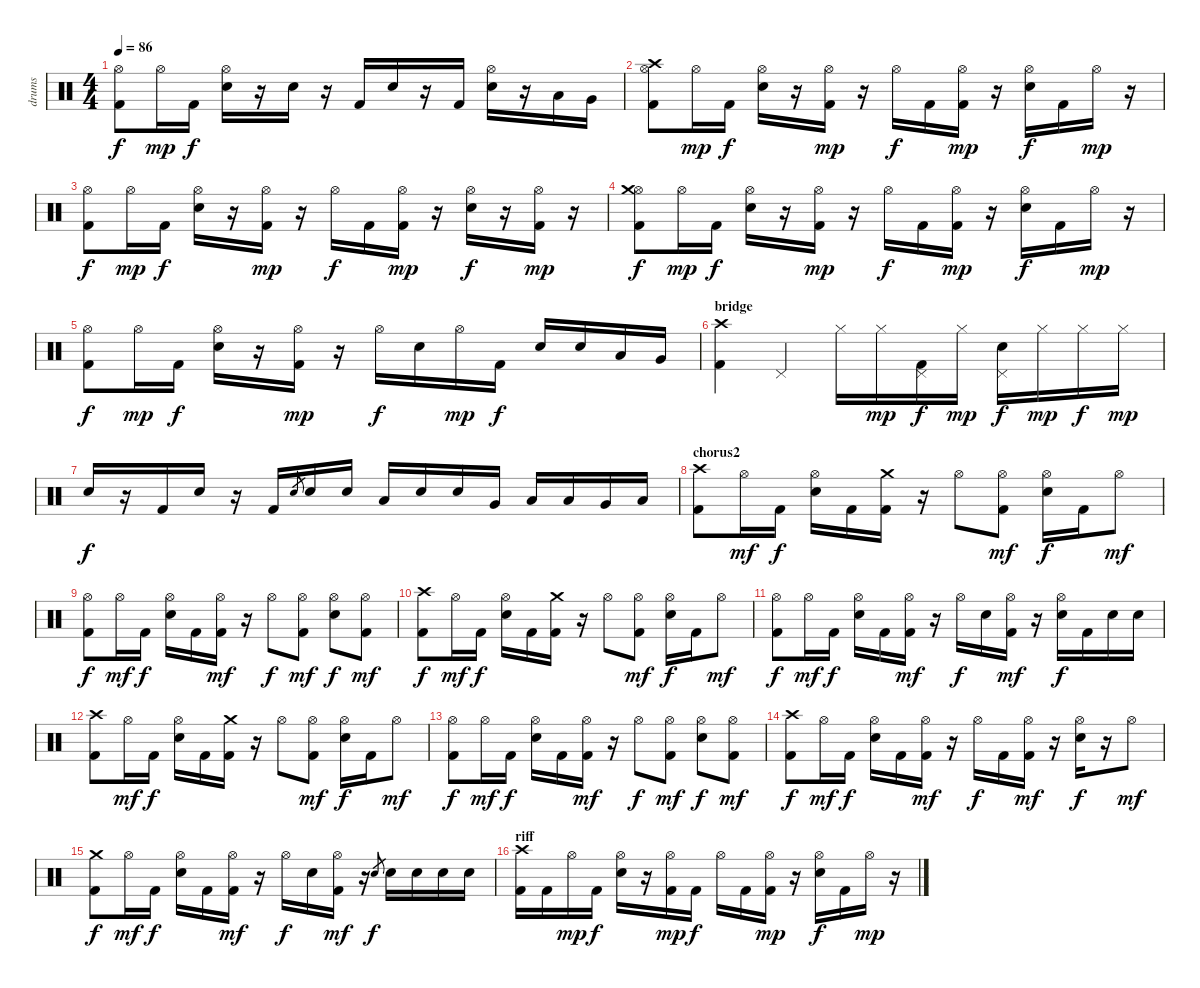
\track ("drums" "drums") {instrument percussion}
\staff {score}
\articulation defaults
\ts (4 4)
\tempo 86
\clef neutral
\ks c
("Kick (hit) 2" "Hi-Hat (open)").8{dy f} "Hi-Hat (open)".16{dy mp} "Kick (hit) 2".16{dy f} ("Electric Snare (hit)" "Hi-Hat (open)").16 r.16 "Electric Snare (hit)".16 r.16 "Kick (hit) 2".16 "Electric Snare (hit)".16 r.16 "Kick (hit) 2".16 ("Electric Snare (hit)" "Hi-Hat (open)").16 r.16 "Low Tom (hit)".16 "Very Low Tom (hit)".16 |
("Kick (hit) 2" "Hi-Hat (open)" "Crash high (hit)").8 "Hi-Hat (open)".16{dy mp} "Kick (hit) 2".16{dy f} ("Electric Snare (hit)" "Hi-Hat (open)").16 r.16 ("Kick (hit) 2" "Hi-Hat (open)").16{dy mp} r.16 "Hi-Hat (open)".16{dy f} "Kick (hit) 2".16 ("Kick (hit) 2" "Hi-Hat (open)").16{dy mp} r.16 ("Electric Snare (hit)" "Hi-Hat (open)").16{dy f} "Kick (hit) 2".16 "Hi-Hat (open)".16{dy mp} r.16 |
("Kick (hit) 2" "Hi-Hat (open)").8{dy f} "Hi-Hat (open)".16{dy mp} "Kick (hit) 2".16{dy f} ("Electric Snare (hit)" "Hi-Hat (open)").16 r.16 ("Kick (hit) 2" "Hi-Hat (open)").16{dy mp} r.16 "Hi-Hat (open)".16{dy f} "Kick (hit) 2".16 ("Kick (hit) 2" "Hi-Hat (open)").16{dy mp} r.16 ("Electric Snare (hit)" "Hi-Hat (open)").16{dy f} r.16 ("Kick (hit) 2" "Hi-Hat (open)").16{dy mp} r.16 |
("Kick (hit) 2" "Hi-Hat (open)" "Crash medium (hit)").8{dy f} "Hi-Hat (open)".16{dy mp} "Kick (hit) 2".16{dy f} ("Electric Snare (hit)" "Hi-Hat (open)").16 r.16 ("Kick (hit) 2" "Hi-Hat (open)").16{dy mp} r.16 "Hi-Hat (open)".16{dy f} "Kick (hit) 2".16 ("Kick (hit) 2" "Hi-Hat (open)").16{dy mp} r.16 ("Electric Snare (hit)" "Hi-Hat (open)").16{dy f} "Kick (hit) 2".16 "Hi-Hat (open)".16{dy mp} r.16 |
("Kick (hit) 2" "Hi-Hat (open)").8{dy f} "Hi-Hat (open)".16{dy mp} "Kick (hit) 2".16{dy f} ("Electric Snare (hit)" "Hi-Hat (open)").16 r.16 ("Kick (hit) 2" "Hi-Hat (open)").16{dy mp} r.16 "Hi-Hat (open)".16{dy f} "Electric Snare (hit)".16 "Hi-Hat (open)".16{dy mp} "Kick (hit) 2".16{dy f} "Electric Snare (hit)".16 "Electric Snare (hit)".16 "Low Tom (hit)".16 "Very Low Tom (hit)".16 |
\section ("" "bridge")
("Kick (hit) 2" "Crash high (hit)").4 "Pedal Hi-Hat (hit)".4 "Hi-Hat (closed)".16 "Hi-Hat (closed)".16{dy mp} ("Kick (hit) 2" "Pedal Hi-Hat (hit)").16{dy f} "Hi-Hat (closed)".16{dy mp} ("Snare (hit) 2" "Pedal Hi-Hat (hit)").16{dy f} "Hi-Hat (closed)".16{dy mp} "Hi-Hat (closed)".16{dy f} "Hi-Hat (closed)".16{dy mp} |
"Electric Snare (hit)".16{dy f} r.16 "Kick (hit) 2".16 "Electric Snare (hit)".16 r.16 "Kick (hit) 2".16 "Electric Snare (hit)".8{gr} "Electric Snare (hit)".16 "Electric Snare (hit)".16 "Low Tom (hit)".16 "Electric Snare (hit)".16 "Electric Snare (hit)".16 "Very Low Tom (hit)".16 "Low Tom (hit)".16 "Low Tom (hit)".16 "Very Low Tom (hit)".16 "Low Floor Tom (hit)".16 |
\section ("" "chorus2")
("Kick (hit) 2" "Crash high (hit)").8 "Hi-Hat (open)".16{dy mf} "Kick (hit) 2".16{dy f} ("Electric Snare (hit)" "Hi-Hat (open)").16 "Kick (hit) 2".16 ("Kick (hit) 2" "Crash medium (hit)").16 r.16 "Hi-Hat (open)".8 ("Kick (hit) 2" "Hi-Hat (open)").8{dy mf} ("Electric Snare (hit)" "Hi-Hat (open)").16{dy f} "Kick (hit) 2".16 "Hi-Hat (open)".8{dy mf} |
("Kick (hit) 2" "Hi-Hat (open)").8{dy f} "Hi-Hat (open)".16{dy mf} "Kick (hit) 2".16{dy f} ("Electric Snare (hit)" "Hi-Hat (open)").16 "Kick (hit) 2".16 ("Kick (hit) 2" "Hi-Hat (open)").16{dy mf} r.16 "Hi-Hat (open)".8{dy f} ("Kick (hit) 2" "Hi-Hat (open)").8{dy mf} ("Electric Snare (hit)" "Hi-Hat (open)").8{dy f} ("Kick (hit) 2" "Hi-Hat (open)").8{dy mf} |
("Kick (hit) 2" "Crash high (hit)").8{dy f} "Hi-Hat (open)".16{dy mf} "Kick (hit) 2".16{dy f} ("Electric Snare (hit)" "Hi-Hat (open)").16 "Kick (hit) 2".16 ("Kick (hit) 2" "Crash medium (hit)").16 r.16 "Hi-Hat (open)".8 ("Kick (hit) 2" "Hi-Hat (open)").8{dy mf} ("Electric Snare (hit)" "Hi-Hat (open)").16{dy f} "Kick (hit) 2".16 "Hi-Hat (open)".8{dy mf} |
("Kick (hit) 2" "Hi-Hat (open)").8{dy f} "Hi-Hat (open)".16{dy mf} "Kick (hit) 2".16{dy f} ("Electric Snare (hit)" "Hi-Hat (open)").16 "Kick (hit) 2".16 ("Kick (hit) 2" "Hi-Hat (open)").16{dy mf} r.16 "Hi-Hat (open)".16{dy f} "Electric Snare (hit)".16 ("Kick (hit) 2" "Hi-Hat (open)").16{dy mf} r.16 ("Electric Snare (hit)" "Hi-Hat (open)").16{dy f} "Kick (hit) 2".16 "Electric Snare (hit)".16 "Electric Snare (hit)".16 |
("Kick (hit) 2" "Crash high (hit)").8 "Hi-Hat (open)".16{dy mf} "Kick (hit) 2".16{dy f} ("Electric Snare (hit)" "Hi-Hat (open)").16 "Kick (hit) 2".16 ("Kick (hit) 2" "Crash medium (hit)").16 r.16 "Hi-Hat (open)".8 ("Kick (hit) 2" "Hi-Hat (open)").8{dy mf} ("Electric Snare (hit)" "Hi-Hat (open)").16{dy f} "Kick (hit) 2".16 "Hi-Hat (open)".8{dy mf} |
("Kick (hit) 2" "Hi-Hat (open)").8{dy f} "Hi-Hat (open)".16{dy mf} "Kick (hit) 2".16{dy f} ("Electric Snare (hit)" "Hi-Hat (open)").16 "Kick (hit) 2".16 ("Kick (hit) 2" "Hi-Hat (open)").16{dy mf} r.16 "Hi-Hat (open)".8{dy f} ("Kick (hit) 2" "Hi-Hat (open)").8{dy mf} ("Electric Snare (hit)" "Hi-Hat (open)").8{dy f} ("Kick (hit) 2" "Hi-Hat (open)").8{dy mf} |
("Kick (hit) 2" "Crash high (hit)").8{dy f} "Hi-Hat (open)".16{dy mf} "Kick (hit) 2".16{dy f} ("Electric Snare (hit)" "Hi-Hat (open)").16 "Kick (hit) 2".16 ("Kick (hit) 2" "Hi-Hat (open)").16{dy mf} r.16 "Hi-Hat (open)".16{dy f} "Kick (hit) 2".16 ("Kick (hit) 2" "Hi-Hat (open)").16{dy mf} r.16 ("Electric Snare (hit)" "Hi-Hat (open)").16{dy f} r.16 "Hi-Hat (open)".8{dy mf} |
("Kick (hit) 2" "Crash medium (hit)").8{dy f} "Hi-Hat (open)".16{dy mf} "Kick (hit) 2".16{dy f} ("Electric Snare (hit)" "Hi-Hat (open)").16 "Kick (hit) 2".16 ("Kick (hit) 2" "Hi-Hat (open)").16{dy mf} r.16 "Hi-Hat (open)".16{dy f} "Electric Snare (hit)".16 ("Kick (hit) 2" "Hi-Hat (open)").16{dy mf} r.16 "Electric Snare (hit)".8{gr dy f} "Electric Snare (hit)".16 "Electric Snare (hit)".16 "Electric Snare (hit)".16 "Electric Snare (hit)".16 |
\section ("" "riff")
("Kick (hit) 2" "Crash high (hit)").16 "Kick (hit) 2".16 "Hi-Hat (open)".16{dy mp} "Kick (hit) 2".16{dy f} ("Electric Snare (hit)" "Hi-Hat (open)").16 r.16 ("Kick (hit) 2" "Hi-Hat (open)").16{dy mp} "Kick (hit) 2".16{dy f} "Hi-Hat (open)".16 "Kick (hit) 2".16 ("Kick (hit) 2" "Hi-Hat (open)").16{dy mp} r.16 ("Electric Snare (hit)" "Hi-Hat (open)").16{dy f} "Kick (hit) 2".16 "Hi-Hat (open)".16{dy mp} r.16
